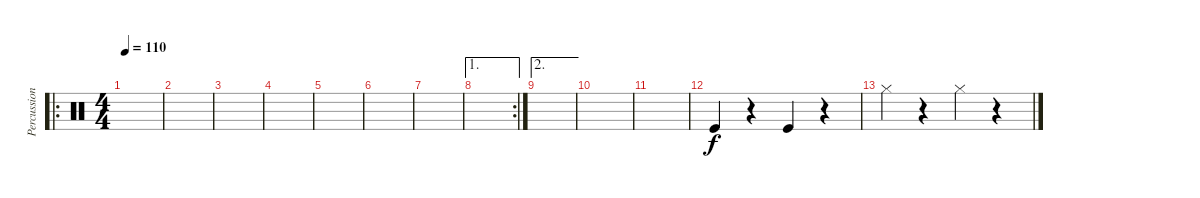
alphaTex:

\track ("Percussion" "Percussion") {instrument percussion}
\staff {score}
\articulation defaults
\ro
\ts (4 4)
\tempo 110
\clef neutral
\ks c
|
|
|
|
|
|
|
\ae 1
\rc 2
|
\ae 2
|
|
|
"Kick (hit)".4 r.4 "Kick (hit)".4 r.4 |
"Hi-Hat (closed)".4 r.4 "Hi-Hat (closed)".4 r.4
